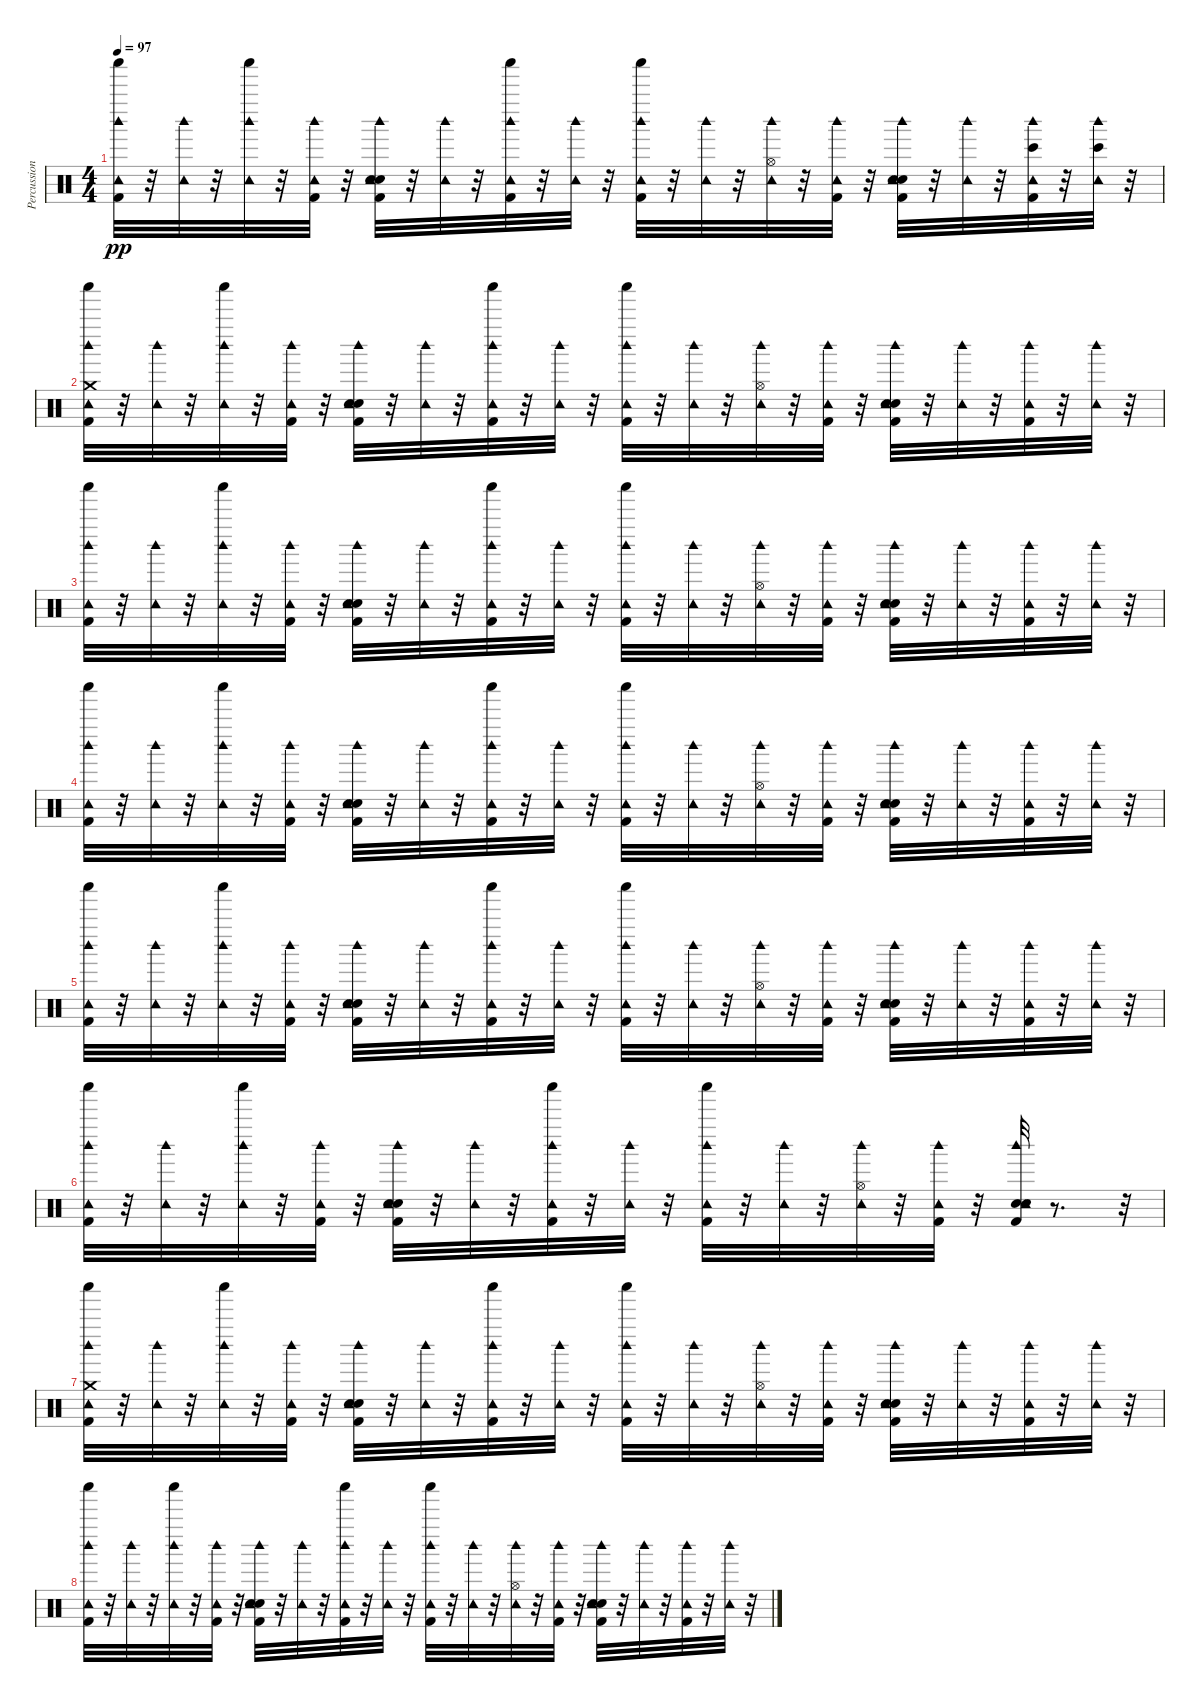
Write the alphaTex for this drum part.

\track ("Percussion" "Percussion") {instrument percussion}
\staff {score}
\articulation defaults
\ts (4 4)
\tempo 97
\clef neutral
\ks c
("Kick (hit) 2" "Tambourine (hit)" "Shaker (hit)" "Woodblock high (hit)").32{dy pp} r.32 ("Tambourine (hit)" "Woodblock high (hit)").32 r.32 ("Tambourine (hit)" "Shaker (hit)" "Woodblock high (hit)").32 r.32 ("Kick (hit) 2" "Tambourine (hit)" "Woodblock high (hit)").32 r.32 ("Kick (hit) 2" "Snare (hit) 2" "Hand Clap (hit)" "Tambourine (hit)" "Woodblock high (hit)").32 r.32 ("Tambourine (hit)" "Woodblock high (hit)").32 r.32 ("Kick (hit) 2" "Tambourine (hit)" "Shaker (hit)" "Woodblock high (hit)").32 r.32 ("Tambourine (hit)" "Woodblock high (hit)").32 r.32 ("Kick (hit) 2" "Tambourine (hit)" "Shaker (hit)" "Woodblock high (hit)").32 r.32 ("Tambourine (hit)" "Woodblock high (hit)").32 r.32 ("Hi-Hat (open)" "Tambourine (hit)" "Woodblock high (hit)").32 r.32 ("Kick (hit) 2" "Tambourine (hit)" "Woodblock high (hit)").32 r.32 ("Kick (hit) 2" "Snare (hit) 2" "Hand Clap (hit)" "Tambourine (hit)" "Woodblock high (hit)").32 r.32 ("Tambourine (hit)" "Woodblock high (hit)").32 r.32 ("Kick (hit) 2" "Tambourine (hit)" "Bongo High (hit)" "Woodblock high (hit)").32 r.32 ("Tambourine (hit)" "Bongo High (hit)" "Woodblock high (hit)").32 r.32 |
("Kick (hit) 2" "Tambourine (hit)" "Crash medium (hit)" "Shaker (hit)" "Woodblock high (hit)").32 r.32 ("Tambourine (hit)" "Woodblock high (hit)").32 r.32 ("Tambourine (hit)" "Shaker (hit)" "Woodblock high (hit)").32 r.32 ("Kick (hit) 2" "Tambourine (hit)" "Woodblock high (hit)").32 r.32 ("Kick (hit) 2" "Snare (hit) 2" "Hand Clap (hit)" "Tambourine (hit)" "Woodblock high (hit)").32 r.32 ("Tambourine (hit)" "Woodblock high (hit)").32 r.32 ("Kick (hit) 2" "Tambourine (hit)" "Shaker (hit)" "Woodblock high (hit)").32 r.32 ("Tambourine (hit)" "Woodblock high (hit)").32 r.32 ("Kick (hit) 2" "Tambourine (hit)" "Shaker (hit)" "Woodblock high (hit)").32 r.32 ("Tambourine (hit)" "Woodblock high (hit)").32 r.32 ("Hi-Hat (open)" "Tambourine (hit)" "Woodblock high (hit)").32 r.32 ("Kick (hit) 2" "Tambourine (hit)" "Woodblock high (hit)").32 r.32 ("Kick (hit) 2" "Snare (hit) 2" "Hand Clap (hit)" "Tambourine (hit)" "Woodblock high (hit)").32 r.32 ("Tambourine (hit)" "Woodblock high (hit)").32 r.32 ("Kick (hit) 2" "Tambourine (hit)" "Woodblock high (hit)").32 r.32 ("Tambourine (hit)" "Woodblock high (hit)").32 r.32 |
("Kick (hit) 2" "Tambourine (hit)" "Shaker (hit)" "Woodblock high (hit)").32 r.32 ("Tambourine (hit)" "Woodblock high (hit)").32 r.32 ("Tambourine (hit)" "Shaker (hit)" "Woodblock high (hit)").32 r.32 ("Kick (hit) 2" "Tambourine (hit)" "Woodblock high (hit)").32 r.32 ("Kick (hit) 2" "Snare (hit) 2" "Hand Clap (hit)" "Tambourine (hit)" "Woodblock high (hit)").32 r.32 ("Tambourine (hit)" "Woodblock high (hit)").32 r.32 ("Kick (hit) 2" "Tambourine (hit)" "Shaker (hit)" "Woodblock high (hit)").32 r.32 ("Tambourine (hit)" "Woodblock high (hit)").32 r.32 ("Kick (hit) 2" "Tambourine (hit)" "Shaker (hit)" "Woodblock high (hit)").32 r.32 ("Tambourine (hit)" "Woodblock high (hit)").32 r.32 ("Hi-Hat (open)" "Tambourine (hit)" "Woodblock high (hit)").32 r.32 ("Kick (hit) 2" "Tambourine (hit)" "Woodblock high (hit)").32 r.32 ("Kick (hit) 2" "Snare (hit) 2" "Hand Clap (hit)" "Tambourine (hit)" "Woodblock high (hit)").32 r.32 ("Tambourine (hit)" "Woodblock high (hit)").32 r.32 ("Kick (hit) 2" "Tambourine (hit)" "Woodblock high (hit)").32 r.32 ("Tambourine (hit)" "Woodblock high (hit)").32 r.32 |
("Kick (hit) 2" "Tambourine (hit)" "Shaker (hit)" "Woodblock high (hit)").32 r.32 ("Tambourine (hit)" "Woodblock high (hit)").32 r.32 ("Tambourine (hit)" "Shaker (hit)" "Woodblock high (hit)").32 r.32 ("Kick (hit) 2" "Tambourine (hit)" "Woodblock high (hit)").32 r.32 ("Kick (hit) 2" "Snare (hit) 2" "Hand Clap (hit)" "Tambourine (hit)" "Woodblock high (hit)").32 r.32 ("Tambourine (hit)" "Woodblock high (hit)").32 r.32 ("Kick (hit) 2" "Tambourine (hit)" "Shaker (hit)" "Woodblock high (hit)").32 r.32 ("Tambourine (hit)" "Woodblock high (hit)").32 r.32 ("Kick (hit) 2" "Tambourine (hit)" "Shaker (hit)" "Woodblock high (hit)").32 r.32 ("Tambourine (hit)" "Woodblock high (hit)").32 r.32 ("Hi-Hat (open)" "Tambourine (hit)" "Woodblock high (hit)").32 r.32 ("Kick (hit) 2" "Tambourine (hit)" "Woodblock high (hit)").32 r.32 ("Kick (hit) 2" "Snare (hit) 2" "Hand Clap (hit)" "Tambourine (hit)" "Woodblock high (hit)").32 r.32 ("Tambourine (hit)" "Woodblock high (hit)").32 r.32 ("Kick (hit) 2" "Tambourine (hit)" "Woodblock high (hit)").32 r.32 ("Tambourine (hit)" "Woodblock high (hit)").32 r.32 |
("Kick (hit) 2" "Tambourine (hit)" "Shaker (hit)" "Woodblock high (hit)").32 r.32 ("Tambourine (hit)" "Woodblock high (hit)").32 r.32 ("Tambourine (hit)" "Shaker (hit)" "Woodblock high (hit)").32 r.32 ("Kick (hit) 2" "Tambourine (hit)" "Woodblock high (hit)").32 r.32 ("Kick (hit) 2" "Snare (hit) 2" "Hand Clap (hit)" "Tambourine (hit)" "Woodblock high (hit)").32 r.32 ("Tambourine (hit)" "Woodblock high (hit)").32 r.32 ("Kick (hit) 2" "Tambourine (hit)" "Shaker (hit)" "Woodblock high (hit)").32 r.32 ("Tambourine (hit)" "Woodblock high (hit)").32 r.32 ("Kick (hit) 2" "Tambourine (hit)" "Shaker (hit)" "Woodblock high (hit)").32 r.32 ("Tambourine (hit)" "Woodblock high (hit)").32 r.32 ("Hi-Hat (open)" "Tambourine (hit)" "Woodblock high (hit)").32 r.32 ("Kick (hit) 2" "Tambourine (hit)" "Woodblock high (hit)").32 r.32 ("Kick (hit) 2" "Snare (hit) 2" "Hand Clap (hit)" "Tambourine (hit)" "Woodblock high (hit)").32 r.32 ("Tambourine (hit)" "Woodblock high (hit)").32 r.32 ("Kick (hit) 2" "Tambourine (hit)" "Woodblock high (hit)").32 r.32 ("Tambourine (hit)" "Woodblock high (hit)").32 r.32 |
("Kick (hit) 2" "Tambourine (hit)" "Shaker (hit)" "Woodblock high (hit)").32 r.32 ("Tambourine (hit)" "Woodblock high (hit)").32 r.32 ("Tambourine (hit)" "Shaker (hit)" "Woodblock high (hit)").32 r.32 ("Kick (hit) 2" "Tambourine (hit)" "Woodblock high (hit)").32 r.32 ("Kick (hit) 2" "Snare (hit) 2" "Hand Clap (hit)" "Tambourine (hit)" "Woodblock high (hit)").32 r.32 ("Tambourine (hit)" "Woodblock high (hit)").32 r.32 ("Kick (hit) 2" "Tambourine (hit)" "Shaker (hit)" "Woodblock high (hit)").32 r.32 ("Tambourine (hit)" "Woodblock high (hit)").32 r.32 ("Kick (hit) 2" "Tambourine (hit)" "Shaker (hit)" "Woodblock high (hit)").32 r.32 ("Tambourine (hit)" "Woodblock high (hit)").32 r.32 ("Hi-Hat (open)" "Tambourine (hit)" "Woodblock high (hit)").32 r.32 ("Kick (hit) 2" "Tambourine (hit)" "Woodblock high (hit)").32 r.32 ("Kick (hit) 2" "Snare (hit) 2" "Hand Clap (hit)" "Tambourine (hit)" "Woodblock high (hit)").32 r.8{d} r.32 |
("Kick (hit) 2" "Tambourine (hit)" "Crash medium (hit)" "Shaker (hit)" "Woodblock high (hit)").32 r.32 ("Tambourine (hit)" "Woodblock high (hit)").32 r.32 ("Tambourine (hit)" "Shaker (hit)" "Woodblock high (hit)").32 r.32 ("Kick (hit) 2" "Tambourine (hit)" "Woodblock high (hit)").32 r.32 ("Kick (hit) 2" "Snare (hit) 2" "Hand Clap (hit)" "Tambourine (hit)" "Woodblock high (hit)").32 r.32 ("Tambourine (hit)" "Woodblock high (hit)").32 r.32 ("Kick (hit) 2" "Tambourine (hit)" "Shaker (hit)" "Woodblock high (hit)").32 r.32 ("Tambourine (hit)" "Woodblock high (hit)").32 r.32 ("Kick (hit) 2" "Tambourine (hit)" "Shaker (hit)" "Woodblock high (hit)").32 r.32 ("Tambourine (hit)" "Woodblock high (hit)").32 r.32 ("Hi-Hat (open)" "Tambourine (hit)" "Woodblock high (hit)").32 r.32 ("Kick (hit) 2" "Tambourine (hit)" "Woodblock high (hit)").32 r.32 ("Kick (hit) 2" "Snare (hit) 2" "Hand Clap (hit)" "Tambourine (hit)" "Woodblock high (hit)").32 r.32 ("Tambourine (hit)" "Woodblock high (hit)").32 r.32 ("Kick (hit) 2" "Tambourine (hit)" "Woodblock high (hit)").32 r.32 ("Tambourine (hit)" "Woodblock high (hit)").32 r.32 |
("Kick (hit) 2" "Tambourine (hit)" "Shaker (hit)" "Woodblock high (hit)").32 r.32 ("Tambourine (hit)" "Woodblock high (hit)").32 r.32 ("Tambourine (hit)" "Shaker (hit)" "Woodblock high (hit)").32 r.32 ("Kick (hit) 2" "Tambourine (hit)" "Woodblock high (hit)").32 r.32 ("Kick (hit) 2" "Snare (hit) 2" "Hand Clap (hit)" "Tambourine (hit)" "Woodblock high (hit)").32 r.32 ("Tambourine (hit)" "Woodblock high (hit)").32 r.32 ("Kick (hit) 2" "Tambourine (hit)" "Shaker (hit)" "Woodblock high (hit)").32 r.32 ("Tambourine (hit)" "Woodblock high (hit)").32 r.32 ("Kick (hit) 2" "Tambourine (hit)" "Shaker (hit)" "Woodblock high (hit)").32 r.32 ("Tambourine (hit)" "Woodblock high (hit)").32 r.32 ("Hi-Hat (open)" "Tambourine (hit)" "Woodblock high (hit)").32 r.32 ("Kick (hit) 2" "Tambourine (hit)" "Woodblock high (hit)").32 r.32 ("Kick (hit) 2" "Snare (hit) 2" "Hand Clap (hit)" "Tambourine (hit)" "Woodblock high (hit)").32 r.32 ("Tambourine (hit)" "Woodblock high (hit)").32 r.32 ("Kick (hit) 2" "Tambourine (hit)" "Woodblock high (hit)").32 r.32 ("Tambourine (hit)" "Woodblock high (hit)").32 r.32
